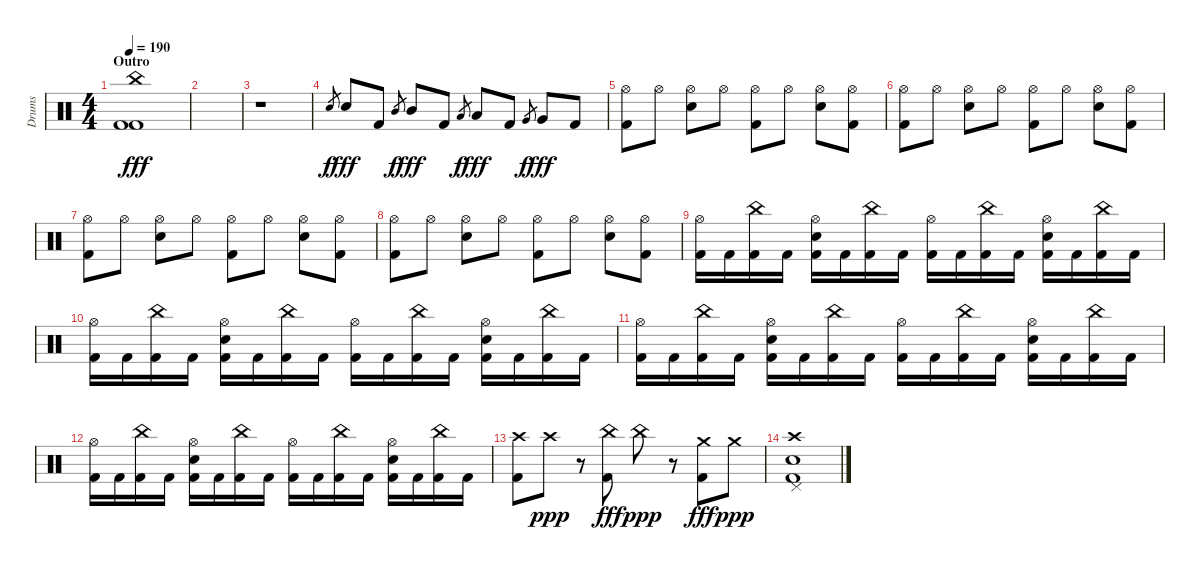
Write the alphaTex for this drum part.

\track ("Drums" "Drums") {instrument percussion}
\staff {score}
\articulation defaults
\ts (4 4)
\section ("" "Outro")
\tempo 190
\clef neutral
\ks c
("China (hit)" "Kick (hit) 2" "Kick (hit) 2").1{dy fff} |
|
r.1 |
"Electric Snare (hit)".8{gr dy f} "Electric Snare (hit)".8{dy fff} "Kick (hit) 2".8 "Mid Tom (hit)".8{gr dy f} "Mid Tom (hit)".8{dy fff} "Kick (hit) 2".8 "Low Tom (hit)".8{gr dy f} "Low Tom (hit)".8{dy fff} "Kick (hit) 2".8 "Very Low Tom (hit)".8{gr dy f} "Very Low Tom (hit)".8{dy fff} "Kick (hit) 2".8 |
("Hi-Hat (open)" "Kick (hit) 2").8 "Hi-Hat (open)".8 ("Hi-Hat (open)" "Electric Snare (hit)").8 "Hi-Hat (open)".8 ("Hi-Hat (open)" "Kick (hit) 2").8 "Hi-Hat (open)".8 ("Hi-Hat (open)" "Electric Snare (hit)").8 ("Hi-Hat (open)" "Kick (hit) 2").8 |
("Hi-Hat (open)" "Kick (hit) 2").8 "Hi-Hat (open)".8 ("Hi-Hat (open)" "Electric Snare (hit)").8 "Hi-Hat (open)".8 ("Hi-Hat (open)" "Kick (hit) 2").8 "Hi-Hat (open)".8 ("Hi-Hat (open)" "Electric Snare (hit)").8 ("Hi-Hat (open)" "Kick (hit) 2").8 |
("Hi-Hat (open)" "Kick (hit) 2").8 "Hi-Hat (open)".8 ("Hi-Hat (open)" "Electric Snare (hit)").8 "Hi-Hat (open)".8 ("Hi-Hat (open)" "Kick (hit) 2").8 "Hi-Hat (open)".8 ("Hi-Hat (open)" "Electric Snare (hit)").8 ("Hi-Hat (open)" "Kick (hit) 2").8 |
("Hi-Hat (open)" "Kick (hit) 2").8 "Hi-Hat (open)".8 ("Hi-Hat (open)" "Electric Snare (hit)").8 "Hi-Hat (open)".8 ("Hi-Hat (open)" "Kick (hit) 2").8 "Hi-Hat (open)".8 ("Hi-Hat (open)" "Electric Snare (hit)").8 ("Hi-Hat (open)" "Kick (hit) 2").8 |
("Kick (hit) 2" "Hi-Hat (open)").16 "Kick (hit) 2".16 ("Kick (hit) 2" "China (hit)").16 "Kick (hit) 2".16 ("Kick (hit) 2" "Hi-Hat (open)" "Electric Snare (hit)").16 "Kick (hit) 2".16 ("Kick (hit) 2" "China (hit)").16 "Kick (hit) 2".16 ("Kick (hit) 2" "Hi-Hat (open)").16 "Kick (hit) 2".16 ("Kick (hit) 2" "China (hit)").16 "Kick (hit) 2".16 ("Kick (hit) 2" "Hi-Hat (open)" "Electric Snare (hit)").16 "Kick (hit) 2".16 ("Kick (hit) 2" "China (hit)").16 "Kick (hit) 2".16 |
("Kick (hit) 2" "Hi-Hat (open)").16 "Kick (hit) 2".16 ("Kick (hit) 2" "China (hit)").16 "Kick (hit) 2".16 ("Kick (hit) 2" "Hi-Hat (open)" "Electric Snare (hit)").16 "Kick (hit) 2".16 ("Kick (hit) 2" "China (hit)").16 "Kick (hit) 2".16 ("Kick (hit) 2" "Hi-Hat (open)").16 "Kick (hit) 2".16 ("Kick (hit) 2" "China (hit)").16 "Kick (hit) 2".16 ("Kick (hit) 2" "Hi-Hat (open)" "Electric Snare (hit)").16 "Kick (hit) 2".16 ("Kick (hit) 2" "China (hit)").16 "Kick (hit) 2".16 |
("Kick (hit) 2" "Hi-Hat (open)").16 "Kick (hit) 2".16 ("Kick (hit) 2" "China (hit)").16 "Kick (hit) 2".16 ("Kick (hit) 2" "Hi-Hat (open)" "Electric Snare (hit)").16 "Kick (hit) 2".16 ("Kick (hit) 2" "China (hit)").16 "Kick (hit) 2".16 ("Kick (hit) 2" "Hi-Hat (open)").16 "Kick (hit) 2".16 ("Kick (hit) 2" "China (hit)").16 "Kick (hit) 2".16 ("Kick (hit) 2" "Hi-Hat (open)" "Electric Snare (hit)").16 "Kick (hit) 2".16 ("Kick (hit) 2" "China (hit)").16 "Kick (hit) 2".16 |
("Kick (hit) 2" "Hi-Hat (open)").16 "Kick (hit) 2".16 ("Kick (hit) 2" "China (hit)").16 "Kick (hit) 2".16 ("Kick (hit) 2" "Hi-Hat (open)" "Electric Snare (hit)").16 "Kick (hit) 2".16 ("Kick (hit) 2" "China (hit)").16 "Kick (hit) 2".16 ("Kick (hit) 2" "Hi-Hat (open)").16 "Kick (hit) 2".16 ("Kick (hit) 2" "China (hit)").16 "Kick (hit) 2".16 ("Kick (hit) 2" "Hi-Hat (open)" "Electric Snare (hit)").16 "Kick (hit) 2".16 ("Kick (hit) 2" "China (hit)").16 "Kick (hit) 2".16 |
("Kick (hit) 2" "Crash high (hit)").8 "Crash high (hit)".8{dy ppp} r.8 ("Kick (hit) 2" "China (hit)").8{dy fff} "China (hit)".8{dy ppp} r.8 ("Kick (hit) 2" "Crash medium (hit)").8{dy fff} "Crash medium (hit)".8{dy ppp} |
("Crash high (hit)" "Kick (hit) 2" "Electric Snare (hit)" "Pedal Hi-Hat (hit)").1
